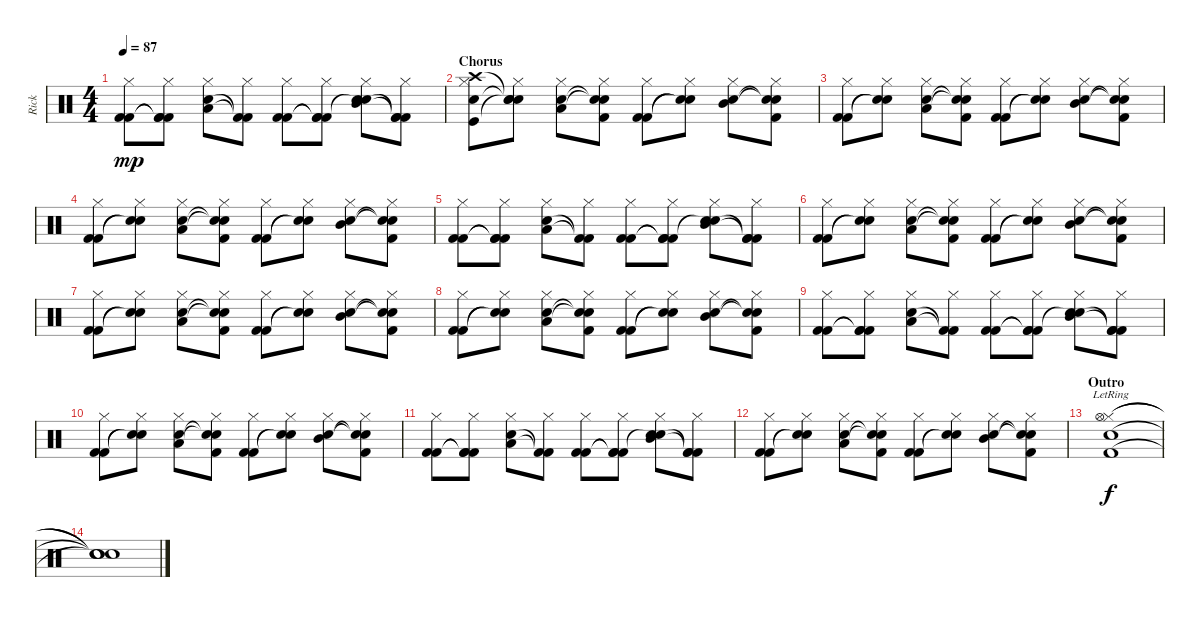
\track ("Rick" "Rick") {instrument percussion}
\staff {score}
\articulation defaults
\ts (4 4)
\tempo 87
\clef neutral
\ks c
("Hi-Hat (closed)" "Kick (hit) 2" "Kick (hit) 2").8{dy mp} ("Hi-Hat (closed)" "Kick (hit) 2"{t} "Kick (hit) 2"{t} "Kick (hit) 2").8 ("Hi-Hat (closed)" "Electric Snare (hit)" "Low Tom (hit)").8 ("Hi-Hat (closed)" "Kick (hit) 2"{t} "Kick (hit) 2"{t}).8 ("Hi-Hat (closed)" "Kick (hit) 2" "Kick (hit) 2").8 ("Hi-Hat (closed)" "Kick (hit) 2"{t} "Kick (hit) 2"{t} "Kick (hit) 2").8 ("Hi-Hat (closed)" "Electric Snare (hit)" "Mid Tom (hit)" "Electric Snare (hit)"{t}).8 ("Hi-Hat (closed)" "Kick (hit) 2"{t} "Kick (hit) 2"{t} "Kick (hit) 2").8 |
\section ("" "Chorus")
("Hi-Hat (closed)" "Electric Snare (hit)" "Kick (hit)" "Crash high (hit)").8 ("Hi-Hat (closed)" "Snare (hit)"{t} "Snare (hit)"{t} "Snare (hit)"{t}).8 ("Hi-Hat (closed)" "Electric Snare (hit)" "Low Tom (hit)").8 ("Hi-Hat (closed)" "Snare (hit)"{t} "Snare (hit)"{t} "Kick (hit) 2").8 ("Hi-Hat (closed)" "Kick (hit) 2" "Kick (hit) 2").8 ("Hi-Hat (closed)" "Snare (hit)"{t} "Snare (hit)"{t}).8 ("Hi-Hat (closed)" "Electric Snare (hit)" "Mid Tom (hit)").8 ("Hi-Hat (closed)" "Snare (hit)"{t} "Snare (hit)"{t} "Kick (hit) 2").8 |
("Hi-Hat (closed)" "Kick (hit) 2" "Kick (hit) 2").8 ("Hi-Hat (closed)" "Snare (hit)"{t} "Snare (hit)"{t}).8 ("Hi-Hat (closed)" "Electric Snare (hit)" "Low Tom (hit)").8 ("Hi-Hat (closed)" "Snare (hit)"{t} "Snare (hit)"{t} "Kick (hit) 2").8 ("Hi-Hat (closed)" "Kick (hit) 2" "Kick (hit) 2").8 ("Hi-Hat (closed)" "Snare (hit)"{t} "Snare (hit)"{t}).8 ("Hi-Hat (closed)" "Electric Snare (hit)" "Mid Tom (hit)").8 ("Hi-Hat (closed)" "Snare (hit)"{t} "Snare (hit)"{t} "Kick (hit) 2").8 |
("Hi-Hat (closed)" "Kick (hit) 2" "Kick (hit) 2").8 ("Hi-Hat (closed)" "Snare (hit)"{t} "Snare (hit)"{t}).8 ("Hi-Hat (closed)" "Electric Snare (hit)" "Low Tom (hit)").8 ("Hi-Hat (closed)" "Snare (hit)"{t} "Snare (hit)"{t} "Kick (hit) 2").8 ("Hi-Hat (closed)" "Kick (hit) 2" "Kick (hit) 2").8 ("Hi-Hat (closed)" "Snare (hit)"{t} "Snare (hit)"{t}).8 ("Hi-Hat (closed)" "Electric Snare (hit)" "Mid Tom (hit)").8 ("Hi-Hat (closed)" "Snare (hit)"{t} "Snare (hit)"{t} "Kick (hit) 2").8 |
("Hi-Hat (closed)" "Kick (hit) 2" "Kick (hit) 2").8 ("Hi-Hat (closed)" "Kick (hit) 2"{t} "Kick (hit) 2"{t} "Kick (hit) 2").8 ("Hi-Hat (closed)" "Electric Snare (hit)" "Low Tom (hit)").8 ("Hi-Hat (closed)" "Kick (hit) 2"{t} "Kick (hit) 2"{t}).8 ("Hi-Hat (closed)" "Kick (hit) 2" "Kick (hit) 2").8 ("Hi-Hat (closed)" "Kick (hit) 2"{t} "Kick (hit) 2"{t} "Kick (hit) 2").8 ("Hi-Hat (closed)" "Electric Snare (hit)" "Mid Tom (hit)" "Electric Snare (hit)"{t}).8 ("Hi-Hat (closed)" "Kick (hit) 2"{t} "Kick (hit) 2"{t} "Kick (hit) 2").8 |
("Hi-Hat (closed)" "Kick (hit) 2" "Kick (hit) 2").8 ("Hi-Hat (closed)" "Snare (hit)"{t} "Snare (hit)"{t}).8 ("Hi-Hat (closed)" "Electric Snare (hit)" "Low Tom (hit)").8 ("Hi-Hat (closed)" "Snare (hit)"{t} "Snare (hit)"{t} "Kick (hit) 2").8 ("Hi-Hat (closed)" "Kick (hit) 2" "Kick (hit) 2").8 ("Hi-Hat (closed)" "Snare (hit)"{t} "Snare (hit)"{t}).8 ("Hi-Hat (closed)" "Electric Snare (hit)" "Mid Tom (hit)").8 ("Hi-Hat (closed)" "Snare (hit)"{t} "Snare (hit)"{t} "Kick (hit) 2").8 |
("Hi-Hat (closed)" "Kick (hit) 2" "Kick (hit) 2").8 ("Hi-Hat (closed)" "Snare (hit)"{t} "Snare (hit)"{t}).8 ("Hi-Hat (closed)" "Electric Snare (hit)" "Low Tom (hit)").8 ("Hi-Hat (closed)" "Snare (hit)"{t} "Snare (hit)"{t} "Kick (hit) 2").8 ("Hi-Hat (closed)" "Kick (hit) 2" "Kick (hit) 2").8 ("Hi-Hat (closed)" "Snare (hit)"{t} "Snare (hit)"{t}).8 ("Hi-Hat (closed)" "Electric Snare (hit)" "Mid Tom (hit)").8 ("Hi-Hat (closed)" "Snare (hit)"{t} "Snare (hit)"{t} "Kick (hit) 2").8 |
("Hi-Hat (closed)" "Kick (hit) 2" "Kick (hit) 2").8 ("Hi-Hat (closed)" "Snare (hit)"{t} "Snare (hit)"{t}).8 ("Hi-Hat (closed)" "Electric Snare (hit)" "Low Tom (hit)").8 ("Hi-Hat (closed)" "Snare (hit)"{t} "Snare (hit)"{t} "Kick (hit) 2").8 ("Hi-Hat (closed)" "Kick (hit) 2" "Kick (hit) 2").8 ("Hi-Hat (closed)" "Snare (hit)"{t} "Snare (hit)"{t}).8 ("Hi-Hat (closed)" "Electric Snare (hit)" "Mid Tom (hit)").8 ("Hi-Hat (closed)" "Snare (hit)"{t} "Snare (hit)"{t} "Kick (hit) 2").8 |
("Hi-Hat (closed)" "Kick (hit) 2" "Kick (hit) 2").8 ("Hi-Hat (closed)" "Kick (hit) 2"{t} "Kick (hit) 2"{t} "Kick (hit) 2").8 ("Hi-Hat (closed)" "Electric Snare (hit)" "Low Tom (hit)").8 ("Hi-Hat (closed)" "Kick (hit) 2"{t} "Kick (hit) 2"{t}).8 ("Hi-Hat (closed)" "Kick (hit) 2" "Kick (hit) 2").8 ("Hi-Hat (closed)" "Kick (hit) 2"{t} "Kick (hit) 2"{t} "Kick (hit) 2").8 ("Hi-Hat (closed)" "Electric Snare (hit)" "Mid Tom (hit)" "Electric Snare (hit)"{t}).8 ("Hi-Hat (closed)" "Kick (hit) 2"{t} "Kick (hit) 2"{t} "Kick (hit) 2").8 |
("Hi-Hat (closed)" "Kick (hit) 2" "Kick (hit) 2").8 ("Hi-Hat (closed)" "Snare (hit)"{t} "Snare (hit)"{t}).8 ("Hi-Hat (closed)" "Electric Snare (hit)" "Low Tom (hit)").8 ("Hi-Hat (closed)" "Snare (hit)"{t} "Snare (hit)"{t} "Kick (hit) 2").8 ("Hi-Hat (closed)" "Kick (hit) 2" "Kick (hit) 2").8 ("Hi-Hat (closed)" "Snare (hit)"{t} "Snare (hit)"{t}).8 ("Hi-Hat (closed)" "Electric Snare (hit)" "Mid Tom (hit)").8 ("Hi-Hat (closed)" "Snare (hit)"{t} "Snare (hit)"{t} "Kick (hit) 2").8 |
("Hi-Hat (closed)" "Kick (hit) 2" "Kick (hit) 2").8 ("Hi-Hat (closed)" "Kick (hit) 2"{t} "Kick (hit) 2"{t} "Kick (hit) 2").8 ("Hi-Hat (closed)" "Electric Snare (hit)" "Low Tom (hit)").8 ("Hi-Hat (closed)" "Kick (hit) 2"{t} "Kick (hit) 2"{t}).8 ("Hi-Hat (closed)" "Kick (hit) 2" "Kick (hit) 2").8 ("Hi-Hat (closed)" "Kick (hit) 2"{t} "Kick (hit) 2"{t} "Kick (hit) 2").8 ("Hi-Hat (closed)" "Electric Snare (hit)" "Mid Tom (hit)" "Electric Snare (hit)"{t}).8 ("Hi-Hat (closed)" "Kick (hit) 2"{t} "Kick (hit) 2"{t} "Kick (hit) 2").8 |
("Hi-Hat (closed)" "Kick (hit) 2" "Kick (hit) 2").8 ("Hi-Hat (closed)" "Snare (hit)"{t} "Snare (hit)"{t}).8 ("Hi-Hat (closed)" "Electric Snare (hit)" "Low Tom (hit)").8 ("Hi-Hat (closed)" "Snare (hit)"{t} "Snare (hit)"{t} "Kick (hit) 2").8 ("Hi-Hat (closed)" "Kick (hit) 2" "Kick (hit) 2").8 ("Hi-Hat (closed)" "Snare (hit)"{t} "Snare (hit)"{t}).8 ("Hi-Hat (closed)" "Electric Snare (hit)" "Mid Tom (hit)").8 ("Hi-Hat (closed)" "Snare (hit)"{t} "Snare (hit)"{t} "Kick (hit) 2").8 |
\section ("" "Outro")
("Hi-Hat (closed)"{lr} "Kick (hit) 2"{lr} "Hi-Hat (open)"{lr} "Electric Snare (hit)"{lr}).1{dy f} |
("Snare (hit)"{t} "Snare (hit)"{t} "Snare (hit)"{t} "Snare (hit)"{t}).1
